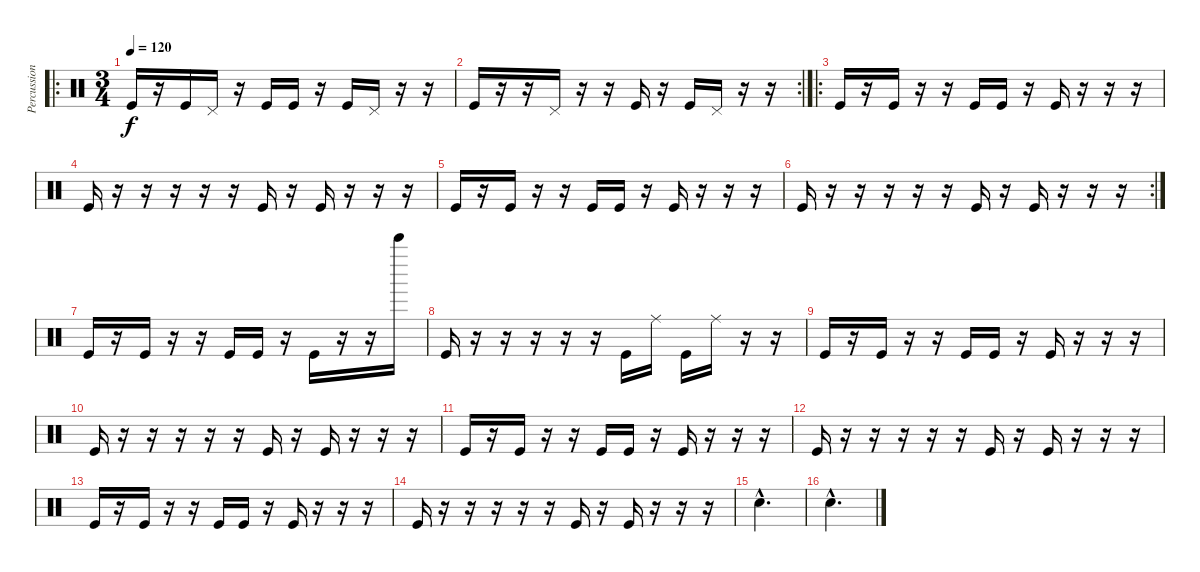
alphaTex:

\track ("Percussions" "Percussion") {instrument percussion}
\staff {score}
\articulation defaults
\ro
\ts (3 4)
\tempo 120
\clef neutral
\ks c "Kick (hit)".16{dy f}
r.16 "Kick (hit)".16 "Pedal Hi-Hat (hit)".16 r.16 "Kick (hit)".16 "Kick (hit)".16 r.16 "Kick (hit)".16 "Pedal Hi-Hat (hit)".16 r.16 r.16 |
\rc 2 "Kick (hit)".16
r.16 r.16 "Pedal Hi-Hat (hit)".16 r.16 r.16 "Kick (hit)".16 r.16 "Kick (hit)".16 "Pedal Hi-Hat (hit)".16 r.16 r.16 |
\ro "Kick (hit)".16
r.16 "Kick (hit)".16 r.16 r.16 "Kick (hit)".16 "Kick (hit)".16 r.16 "Kick (hit)".16 r.16 r.16 r.16 |
"Kick (hit)".16 r.16 r.16 r.16 r.16 r.16 "Kick (hit)".16 r.16 "Kick (hit)".16 r.16 r.16 r.16 |
"Kick (hit)".16 r.16 "Kick (hit)".16 r.16 r.16 "Kick (hit)".16 "Kick (hit)".16 r.16 "Kick (hit)".16 r.16 r.16 r.16 |
\rc 2 "Kick (hit)".16
r.16 r.16 r.16 r.16 r.16 "Kick (hit)".16 r.16 "Kick (hit)".16 r.16 r.16 r.16 |
"Kick (hit)".16 r.16 "Kick (hit)".16 r.16 r.16 "Kick (hit)".16 "Kick (hit)".16 r.16 "Kick (hit)".16 r.16 r.16 "Bell Tree (hit)".16 |
"Kick (hit)".16 r.16 r.16 r.16 r.16 r.16 "Kick (hit)".16 "Ride (middle)".16 "Kick (hit)".16 "Ride (middle)".16 r.16 r.16 |
"Kick (hit)".16 r.16 "Kick (hit)".16 r.16 r.16 "Kick (hit)".16 "Kick (hit)".16 r.16 "Kick (hit)".16 r.16 r.16 r.16 |
"Kick (hit)".16 r.16 r.16 r.16 r.16 r.16 "Kick (hit)".16 r.16 "Kick (hit)".16 r.16 r.16 r.16 |
"Kick (hit)".16 r.16 "Kick (hit)".16 r.16 r.16 "Kick (hit)".16 "Kick (hit)".16 r.16 "Kick (hit)".16 r.16 r.16 r.16 |
"Kick (hit)".16 r.16 r.16 r.16 r.16 r.16 "Kick (hit)".16 r.16 "Kick (hit)".16 r.16 r.16 r.16 |
"Kick (hit)".16 r.16 "Kick (hit)".16 r.16 r.16 "Kick (hit)".16 "Kick (hit)".16 r.16 "Kick (hit)".16 r.16 r.16 r.16 |
"Kick (hit)".16 r.16 r.16 r.16 r.16 r.16 "Kick (hit)".16 r.16 "Kick (hit)".16 r.16 r.16 r.16 |
"Metronome (bell)"{hac}.2{d} |
"Metronome (bell)"{hac}.2{d}
